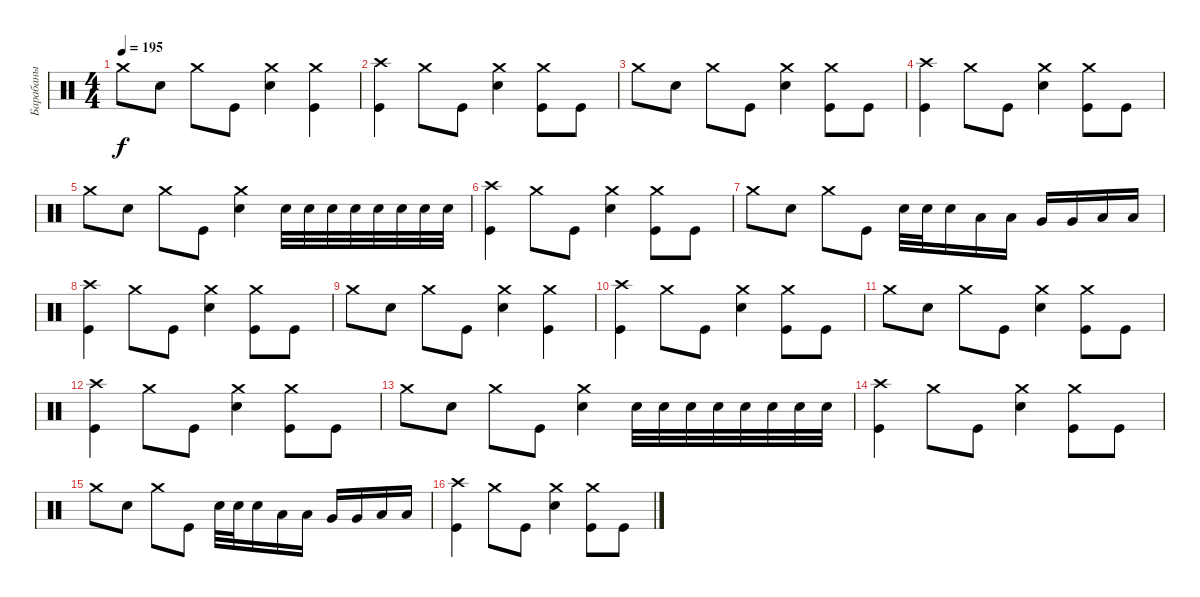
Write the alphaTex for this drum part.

\track ("Барабаны" "Барабаны") {instrument percussion}
\staff {score}
\articulation defaults
\ts (4 4)
\tempo 195
\clef neutral
\ks c "Crash medium (hit)".8{dy f} "Electric Snare (hit)".8 "Crash medium (hit)".8 "Kick (hit)".8
("Crash medium (hit)" "Electric Snare (hit)").4 ("Crash medium (hit)" "Kick (hit)").4 |
("Crash high (hit)" "Kick (hit)").4 "Crash medium (hit)".8 "Kick (hit)".8 ("Crash medium (hit)" "Electric Snare (hit)").4 ("Crash medium (hit)" "Kick (hit)").8 "Kick (hit)".8 |
"Crash medium (hit)".8 "Electric Snare (hit)".8 "Crash medium (hit)".8 "Kick (hit)".8 ("Crash medium (hit)" "Electric Snare (hit)").4 ("Crash medium (hit)" "Kick (hit)").8 "Kick (hit)".8 |
("Crash high (hit)" "Kick (hit)").4 "Crash medium (hit)".8 "Kick (hit)".8 ("Crash medium (hit)" "Electric Snare (hit)").4 ("Crash medium (hit)" "Kick (hit)").8 "Kick (hit)".8 |
"Crash medium (hit)".8 "Electric Snare (hit)".8 "Crash medium (hit)".8 "Kick (hit)".8 ("Crash medium (hit)" "Electric Snare (hit)").4 "Electric Snare (hit)".32 "Electric Snare (hit)".32 "Electric Snare (hit)".32 "Electric Snare (hit)".32 "Electric Snare (hit)".32 "Electric Snare (hit)".32 "Electric Snare (hit)".32 "Electric Snare (hit)".32 |
("Crash high (hit)" "Kick (hit)").4{volume 13} "Crash medium (hit)".8 "Kick (hit)".8 ("Crash medium (hit)" "Electric Snare (hit)").4 ("Crash medium (hit)" "Kick (hit)").8 "Kick (hit)".8 |
"Crash medium (hit)".8 "Electric Snare (hit)".8 "Crash medium (hit)".8 "Kick (hit)".8 "Electric Snare (hit)".32 "Electric Snare (hit)".32 "Electric Snare (hit)".16 "Low Tom (hit)".16 "Low Tom (hit)".16 "Very Low Tom (hit)".16 "Very Low Tom (hit)".16 "Low Floor Tom (hit)".16 "Low Floor Tom (hit)".16 |
("Crash high (hit)" "Kick (hit)").4 "Crash medium (hit)".8 "Kick (hit)".8 ("Crash medium (hit)" "Electric Snare (hit)").4 ("Crash medium (hit)" "Kick (hit)").8 "Kick (hit)".8 |
"Crash medium (hit)".8 "Electric Snare (hit)".8 "Crash medium (hit)".8 "Kick (hit)".8 ("Crash medium (hit)" "Electric Snare (hit)").4 ("Crash medium (hit)" "Kick (hit)").4 |
("Crash high (hit)" "Kick (hit)").4 "Crash medium (hit)".8 "Kick (hit)".8 ("Crash medium (hit)" "Electric Snare (hit)").4 ("Crash medium (hit)" "Kick (hit)").8 "Kick (hit)".8 |
"Crash medium (hit)".8 "Electric Snare (hit)".8 "Crash medium (hit)".8 "Kick (hit)".8 ("Crash medium (hit)" "Electric Snare (hit)").4 ("Crash medium (hit)" "Kick (hit)").8 "Kick (hit)".8 |
("Crash high (hit)" "Kick (hit)").4 "Crash medium (hit)".8 "Kick (hit)".8 ("Crash medium (hit)" "Electric Snare (hit)").4 ("Crash medium (hit)" "Kick (hit)").8 "Kick (hit)".8 |
"Crash medium (hit)".8 "Electric Snare (hit)".8 "Crash medium (hit)".8 "Kick (hit)".8 ("Crash medium (hit)" "Electric Snare (hit)").4 "Electric Snare (hit)".32 "Electric Snare (hit)".32 "Electric Snare (hit)".32 "Electric Snare (hit)".32 "Electric Snare (hit)".32 "Electric Snare (hit)".32 "Electric Snare (hit)".32 "Electric Snare (hit)".32 |
("Crash high (hit)" "Kick (hit)").4{volume 13} "Crash medium (hit)".8 "Kick (hit)".8 ("Crash medium (hit)" "Electric Snare (hit)").4 ("Crash medium (hit)" "Kick (hit)").8 "Kick (hit)".8 |
"Crash medium (hit)".8 "Electric Snare (hit)".8 "Crash medium (hit)".8 "Kick (hit)".8 "Electric Snare (hit)".32 "Electric Snare (hit)".32 "Electric Snare (hit)".16 "Low Tom (hit)".16 "Low Tom (hit)".16 "Very Low Tom (hit)".16 "Very Low Tom (hit)".16 "Low Floor Tom (hit)".16 "Low Floor Tom (hit)".16 |
("Crash high (hit)" "Kick (hit)").4 "Crash medium (hit)".8 "Kick (hit)".8 ("Crash medium (hit)" "Electric Snare (hit)").4 ("Crash medium (hit)" "Kick (hit)").8 "Kick (hit)".8
